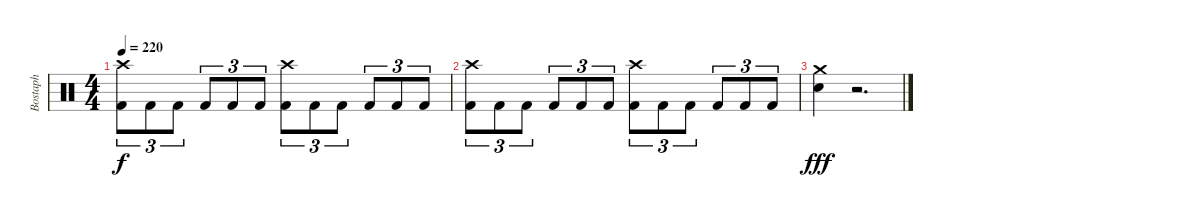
\track ("Bostaph" "Bostaph") {instrument percussion}
\staff {score}
\articulation defaults
\ts (4 4)
\tempo 220
\clef neutral
\ks c
("Crash high (hit)" "Kick (hit) 2").8{tu (3 2) dy f} "Kick (hit) 2".8{tu (3 2)} "Kick (hit) 2".8{tu (3 2)} "Kick (hit) 2".8{tu (3 2)} "Kick (hit) 2".8{tu (3 2)} "Kick (hit) 2".8{tu (3 2)} ("Crash high (hit)" "Kick (hit) 2").8{tu (3 2)} "Kick (hit) 2".8{tu (3 2)} "Kick (hit) 2".8{tu (3 2)} "Kick (hit) 2".8{tu (3 2)} "Kick (hit) 2".8{tu (3 2)} "Kick (hit) 2".8{tu (3 2)} |
("Crash high (hit)" "Kick (hit) 2").8{tu (3 2)} "Kick (hit) 2".8{tu (3 2)} "Kick (hit) 2".8{tu (3 2)} "Kick (hit) 2".8{tu (3 2)} "Kick (hit) 2".8{tu (3 2)} "Kick (hit) 2".8{tu (3 2)} ("Crash high (hit)" "Kick (hit) 2").8{tu (3 2)} "Kick (hit) 2".8{tu (3 2)} "Kick (hit) 2".8{tu (3 2)} "Kick (hit) 2".8{tu (3 2)} "Kick (hit) 2".8{tu (3 2)} "Kick (hit) 2".8{tu (3 2)} |
("Crash medium (hit)" "Electric Snare (hit)").4{dy fff} r.2{d}
